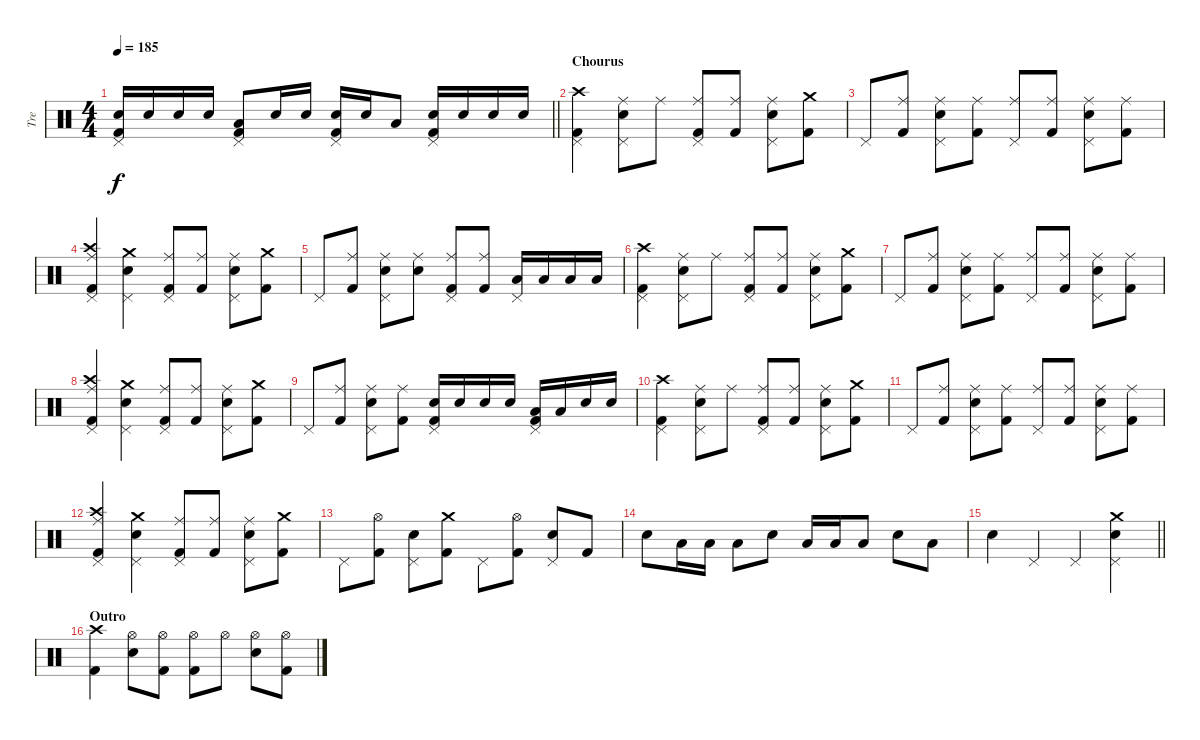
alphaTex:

\track ("Tre" "Tre") {instrument percussion}
\staff {score}
\articulation defaults
\ts (4 4)
\tempo 185
\clef neutral
\barLineRight lightlight
\ks c
("Snare (hit) 2" "Pedal Hi-Hat (hit)" "Kick (hit) 2").16{dy f} "Snare (hit) 2".16 "Snare (hit) 2".16 "Snare (hit) 2".16 ("Low Tom (hit)" "Pedal Hi-Hat (hit)" "Kick (hit) 2").8 "Snare (hit) 2".16 "Snare (hit) 2".16 ("Snare (hit) 2" "Pedal Hi-Hat (hit)" "Kick (hit) 2").16 "Snare (hit) 2".16 "Low Tom (hit)".8 ("Snare (hit) 2" "Pedal Hi-Hat (hit)" "Kick (hit) 2").16 "Snare (hit) 2".16 "Snare (hit) 2".16 "Snare (hit) 2".16 |
\section ("" "Chourus")
("Crash high (hit)" "Pedal Hi-Hat (hit)" "Kick (hit) 2").4 ("Ride (middle)" "Snare (hit) 2" "Pedal Hi-Hat (hit)").8 "Ride (middle)".8 ("Ride (middle)" "Pedal Hi-Hat (hit)" "Kick (hit) 2").8 ("Ride (middle)" "Kick (hit) 2").8 ("Ride (middle)" "Snare (hit) 2" "Pedal Hi-Hat (hit)").8 ("Crash medium (hit)" "Kick (hit) 2").8 |
"Pedal Hi-Hat (hit)".8 ("Ride (middle)" "Kick (hit) 2").8 ("Ride (middle)" "Snare (hit) 2" "Pedal Hi-Hat (hit)").8 ("Ride (middle)" "Kick (hit) 2").8 ("Ride (middle)" "Pedal Hi-Hat (hit)").8 ("Ride (middle)" "Kick (hit) 2").8 ("Ride (middle)" "Snare (hit) 2" "Pedal Hi-Hat (hit)").8 ("Ride (middle)" "Kick (hit) 2").8 |
("Crash high (hit)" "Ride (middle)" "Pedal Hi-Hat (hit)" "Kick (hit) 2").4 ("Crash medium (hit)" "Snare (hit) 2" "Pedal Hi-Hat (hit)").4 ("Ride (middle)" "Pedal Hi-Hat (hit)" "Kick (hit) 2").8 ("Ride (middle)" "Kick (hit) 2").8 ("Ride (middle)" "Snare (hit) 2" "Pedal Hi-Hat (hit)").8 ("Crash medium (hit)" "Kick (hit) 2").8 |
"Pedal Hi-Hat (hit)".8 ("Ride (middle)" "Kick (hit) 2").8 ("Ride (middle)" "Snare (hit) 2" "Pedal Hi-Hat (hit)").8 ("Ride (middle)" "Snare (hit) 2").8 ("Ride (middle)" "Pedal Hi-Hat (hit)" "Kick (hit) 2").8 ("Ride (middle)" "Kick (hit) 2").8 ("Low Tom (hit)" "Pedal Hi-Hat (hit)").16 "Low Tom (hit)".16 "Low Tom (hit)".16 "Low Tom (hit)".16 |
("Crash high (hit)" "Pedal Hi-Hat (hit)" "Kick (hit) 2").4 ("Ride (middle)" "Snare (hit) 2" "Pedal Hi-Hat (hit)").8 "Ride (middle)".8 ("Ride (middle)" "Pedal Hi-Hat (hit)" "Kick (hit) 2").8 ("Ride (middle)" "Kick (hit) 2").8 ("Ride (middle)" "Snare (hit) 2" "Pedal Hi-Hat (hit)").8 ("Crash medium (hit)" "Kick (hit) 2").8 |
"Pedal Hi-Hat (hit)".8 ("Ride (middle)" "Kick (hit) 2").8 ("Ride (middle)" "Snare (hit) 2" "Pedal Hi-Hat (hit)").8 ("Ride (middle)" "Kick (hit) 2").8 ("Ride (middle)" "Pedal Hi-Hat (hit)").8 ("Ride (middle)" "Kick (hit) 2").8 ("Ride (middle)" "Snare (hit) 2" "Pedal Hi-Hat (hit)").8 ("Ride (middle)" "Kick (hit) 2").8 |
("Crash high (hit)" "Ride (middle)" "Pedal Hi-Hat (hit)" "Kick (hit) 2").4 ("Crash medium (hit)" "Snare (hit) 2" "Pedal Hi-Hat (hit)").4 ("Ride (middle)" "Pedal Hi-Hat (hit)" "Kick (hit) 2").8 ("Ride (middle)" "Kick (hit) 2").8 ("Ride (middle)" "Snare (hit) 2" "Pedal Hi-Hat (hit)").8 ("Crash medium (hit)" "Kick (hit) 2").8 |
"Pedal Hi-Hat (hit)".8 ("Ride (middle)" "Kick (hit) 2").8 ("Ride (middle)" "Snare (hit) 2" "Pedal Hi-Hat (hit)").8 ("Ride (middle)" "Kick (hit) 2").8 ("Snare (hit) 2" "Pedal Hi-Hat (hit)" "Kick (hit) 2").16 "Snare (hit) 2".16 "Snare (hit) 2".16 "Snare (hit) 2".16 ("Low Tom (hit)" "Pedal Hi-Hat (hit)" "Kick (hit) 2").16 "Low Tom (hit)".16 "Snare (hit) 2".16 "Snare (hit) 2".16 |
("Crash high (hit)" "Pedal Hi-Hat (hit)" "Kick (hit) 2").4 ("Ride (middle)" "Snare (hit) 2" "Pedal Hi-Hat (hit)").8 "Ride (middle)".8 ("Ride (middle)" "Pedal Hi-Hat (hit)" "Kick (hit) 2").8 ("Ride (middle)" "Kick (hit) 2").8 ("Ride (middle)" "Snare (hit) 2" "Pedal Hi-Hat (hit)").8 ("Crash medium (hit)" "Kick (hit) 2").8 |
"Pedal Hi-Hat (hit)".8 ("Ride (middle)" "Kick (hit) 2").8 ("Ride (middle)" "Snare (hit) 2" "Pedal Hi-Hat (hit)").8 ("Ride (middle)" "Kick (hit) 2").8 ("Ride (middle)" "Pedal Hi-Hat (hit)").8 ("Ride (middle)" "Kick (hit) 2").8 ("Ride (middle)" "Snare (hit) 2" "Pedal Hi-Hat (hit)").8 ("Ride (middle)" "Kick (hit) 2").8 |
("Crash high (hit)" "Ride (middle)" "Pedal Hi-Hat (hit)" "Kick (hit) 2").4 ("Crash medium (hit)" "Snare (hit) 2" "Pedal Hi-Hat (hit)").4 ("Ride (middle)" "Pedal Hi-Hat (hit)" "Kick (hit) 2").8 ("Ride (middle)" "Kick (hit) 2").8 ("Ride (middle)" "Snare (hit) 2" "Pedal Hi-Hat (hit)").8 ("Crash medium (hit)" "Kick (hit) 2").8 |
"Pedal Hi-Hat (hit)".8 ("Hi-Hat (open)" "Kick (hit) 2").8 ("Snare (hit) 2" "Pedal Hi-Hat (hit)").8 ("Crash medium (hit)" "Kick (hit) 2").8 "Pedal Hi-Hat (hit)".8 ("Hi-Hat (open)" "Kick (hit) 2").8 ("Snare (hit) 2" "Pedal Hi-Hat (hit)").8 "Kick (hit) 2".8 |
"Snare (hit) 2".8 "Low Floor Tom (hit)".16 "Low Floor Tom (hit)".16 "Low Floor Tom (hit)".8 "Snare (hit) 2".8 "Low Floor Tom (hit)".16 "Low Floor Tom (hit)".16 "Low Floor Tom (hit)".8 "Snare (hit) 2".8 "Low Floor Tom (hit)".8 |
\barLineRight lightlight "Snare (hit) 2".4 "Pedal Hi-Hat (hit)".4 "Pedal Hi-Hat (hit)".4
("Crash medium (hit)" "Snare (hit) 2" "Pedal Hi-Hat (hit)").4 |
\section ("" "Outro")
("Crash high (hit)" "Kick (hit) 2").4 ("Hi-Hat (open)" "Snare (hit) 2").8 ("Hi-Hat (open)" "Kick (hit) 2").8 ("Hi-Hat (open)" "Kick (hit) 2").8 "Hi-Hat (open)".8 ("Hi-Hat (open)" "Snare (hit) 2").8 ("Hi-Hat (open)" "Kick (hit) 2").8
